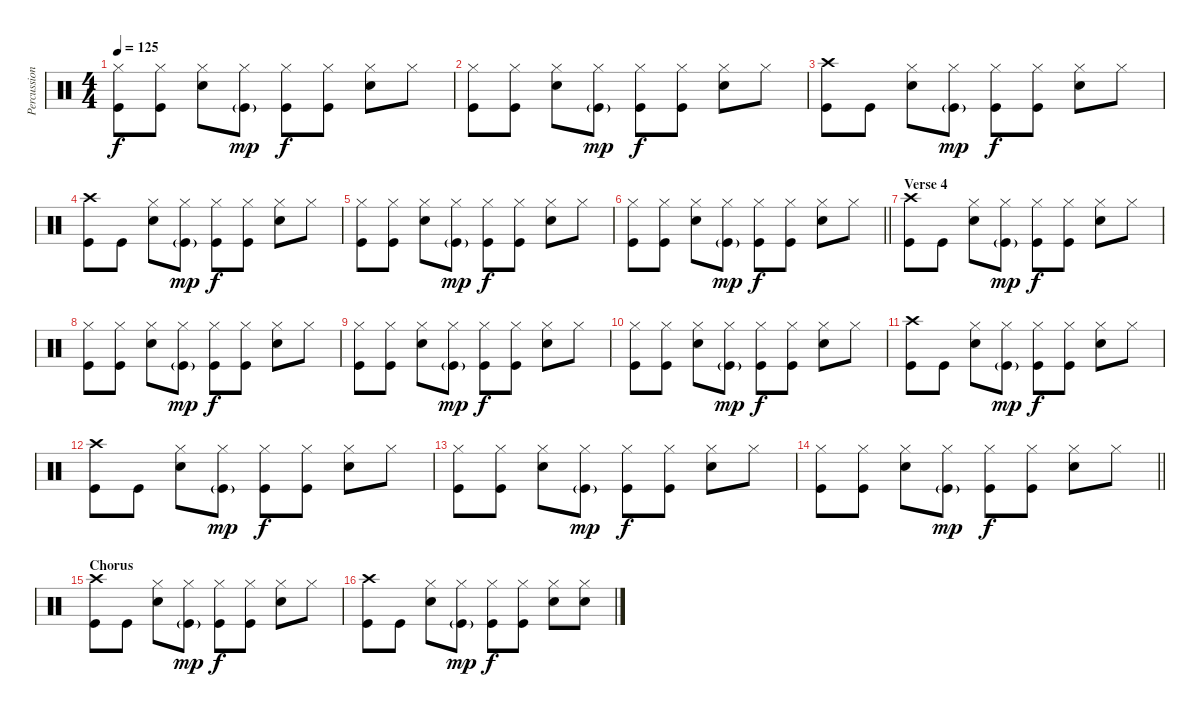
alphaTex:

\track ("Percussion" "Percussion") {instrument percussion}
\staff {score}
\articulation defaults
\ts (4 4)
\tempo 125
\clef neutral
\ks c
("Hi-Hat (closed)" "Kick (hit)").8{dy f} ("Hi-Hat (closed)" "Kick (hit)").8 ("Hi-Hat (closed)" "Snare (hit) 2").8 ("Hi-Hat (closed)" "Kick (hit)"{g}).8{dy mp} ("Hi-Hat (closed)" "Kick (hit)").8{dy f} ("Hi-Hat (closed)" "Kick (hit)").8 ("Hi-Hat (closed)" "Snare (hit) 2").8 "Hi-Hat (closed)".8 |
("Hi-Hat (closed)" "Kick (hit)").8 ("Hi-Hat (closed)" "Kick (hit)").8 ("Hi-Hat (closed)" "Snare (hit) 2").8 ("Hi-Hat (closed)" "Kick (hit)"{g}).8{dy mp} ("Hi-Hat (closed)" "Kick (hit)").8{dy f} ("Hi-Hat (closed)" "Kick (hit)").8 ("Hi-Hat (closed)" "Snare (hit) 2").8 "Hi-Hat (closed)".8 |
("Crash high (hit)" "Kick (hit)").8 "Kick (hit)".8 ("Hi-Hat (closed)" "Snare (hit) 2").8 ("Hi-Hat (closed)" "Kick (hit)"{g}).8{dy mp} ("Hi-Hat (closed)" "Kick (hit)").8{dy f} ("Hi-Hat (closed)" "Kick (hit)").8 ("Hi-Hat (closed)" "Snare (hit) 2").8 "Hi-Hat (closed)".8 |
("Crash high (hit)" "Kick (hit)").8 "Kick (hit)".8 ("Hi-Hat (closed)" "Snare (hit) 2").8 ("Hi-Hat (closed)" "Kick (hit)"{g}).8{dy mp} ("Hi-Hat (closed)" "Kick (hit)").8{dy f} ("Hi-Hat (closed)" "Kick (hit)").8 ("Hi-Hat (closed)" "Snare (hit) 2").8 "Hi-Hat (closed)".8 |
("Hi-Hat (closed)" "Kick (hit)").8 ("Hi-Hat (closed)" "Kick (hit)").8 ("Hi-Hat (closed)" "Snare (hit) 2").8 ("Hi-Hat (closed)" "Kick (hit)"{g}).8{dy mp} ("Hi-Hat (closed)" "Kick (hit)").8{dy f} ("Hi-Hat (closed)" "Kick (hit)").8 ("Hi-Hat (closed)" "Snare (hit) 2").8 "Hi-Hat (closed)".8 |
\barLineRight lightlight
("Hi-Hat (closed)" "Kick (hit)").8 ("Hi-Hat (closed)" "Kick (hit)").8 ("Hi-Hat (closed)" "Snare (hit) 2").8 ("Hi-Hat (closed)" "Kick (hit)"{g}).8{dy mp} ("Hi-Hat (closed)" "Kick (hit)").8{dy f} ("Hi-Hat (closed)" "Kick (hit)").8 ("Hi-Hat (closed)" "Snare (hit) 2").8 "Hi-Hat (closed)".8 |
\section ("" "Verse 4")
("Crash high (hit)" "Kick (hit)").8 "Kick (hit)".8 ("Hi-Hat (closed)" "Snare (hit) 2").8 ("Hi-Hat (closed)" "Kick (hit)"{g}).8{dy mp} ("Hi-Hat (closed)" "Kick (hit)").8{dy f} ("Hi-Hat (closed)" "Kick (hit)").8 ("Hi-Hat (closed)" "Snare (hit) 2").8 "Hi-Hat (closed)".8 |
("Hi-Hat (closed)" "Kick (hit)").8 ("Hi-Hat (closed)" "Kick (hit)").8 ("Hi-Hat (closed)" "Snare (hit) 2").8 ("Hi-Hat (closed)" "Kick (hit)"{g}).8{dy mp} ("Hi-Hat (closed)" "Kick (hit)").8{dy f} ("Hi-Hat (closed)" "Kick (hit)").8 ("Hi-Hat (closed)" "Snare (hit) 2").8 "Hi-Hat (closed)".8 |
("Hi-Hat (closed)" "Kick (hit)").8 ("Hi-Hat (closed)" "Kick (hit)").8 ("Hi-Hat (closed)" "Snare (hit) 2").8 ("Hi-Hat (closed)" "Kick (hit)"{g}).8{dy mp} ("Hi-Hat (closed)" "Kick (hit)").8{dy f} ("Hi-Hat (closed)" "Kick (hit)").8 ("Hi-Hat (closed)" "Snare (hit) 2").8 "Hi-Hat (closed)".8 |
("Hi-Hat (closed)" "Kick (hit)").8 ("Hi-Hat (closed)" "Kick (hit)").8 ("Hi-Hat (closed)" "Snare (hit) 2").8 ("Hi-Hat (closed)" "Kick (hit)"{g}).8{dy mp} ("Hi-Hat (closed)" "Kick (hit)").8{dy f} ("Hi-Hat (closed)" "Kick (hit)").8 ("Hi-Hat (closed)" "Snare (hit) 2").8 "Hi-Hat (closed)".8 |
("Crash high (hit)" "Kick (hit)").8 "Kick (hit)".8 ("Hi-Hat (closed)" "Snare (hit) 2").8 ("Hi-Hat (closed)" "Kick (hit)"{g}).8{dy mp} ("Hi-Hat (closed)" "Kick (hit)").8{dy f} ("Hi-Hat (closed)" "Kick (hit)").8 ("Hi-Hat (closed)" "Snare (hit) 2").8 "Hi-Hat (closed)".8 |
("Crash high (hit)" "Kick (hit)").8 "Kick (hit)".8 ("Hi-Hat (closed)" "Snare (hit) 2").8 ("Hi-Hat (closed)" "Kick (hit)"{g}).8{dy mp} ("Hi-Hat (closed)" "Kick (hit)").8{dy f} ("Hi-Hat (closed)" "Kick (hit)").8 ("Hi-Hat (closed)" "Snare (hit) 2").8 "Hi-Hat (closed)".8 |
("Hi-Hat (closed)" "Kick (hit)").8 ("Hi-Hat (closed)" "Kick (hit)").8 ("Hi-Hat (closed)" "Snare (hit) 2").8 ("Hi-Hat (closed)" "Kick (hit)"{g}).8{dy mp} ("Hi-Hat (closed)" "Kick (hit)").8{dy f} ("Hi-Hat (closed)" "Kick (hit)").8 ("Hi-Hat (closed)" "Snare (hit) 2").8 "Hi-Hat (closed)".8 |
\barLineRight lightlight
("Hi-Hat (closed)" "Kick (hit)").8 ("Hi-Hat (closed)" "Kick (hit)").8 ("Hi-Hat (closed)" "Snare (hit) 2").8 ("Hi-Hat (closed)" "Kick (hit)"{g}).8{dy mp} ("Hi-Hat (closed)" "Kick (hit)").8{dy f} ("Hi-Hat (closed)" "Kick (hit)").8 ("Hi-Hat (closed)" "Snare (hit) 2").8 "Hi-Hat (closed)".8 |
\section ("" "Chorus")
("Crash high (hit)" "Kick (hit)").8 "Kick (hit)".8 ("Hi-Hat (closed)" "Snare (hit) 2").8 ("Hi-Hat (closed)" "Kick (hit)"{g}).8{dy mp} ("Hi-Hat (closed)" "Kick (hit)").8{dy f} ("Hi-Hat (closed)" "Kick (hit)").8 ("Hi-Hat (closed)" "Snare (hit) 2").8 "Hi-Hat (closed)".8 |
("Crash high (hit)" "Kick (hit)").8 "Kick (hit)".8 ("Hi-Hat (closed)" "Snare (hit) 2").8 ("Hi-Hat (closed)" "Kick (hit)"{g}).8{dy mp} ("Hi-Hat (closed)" "Kick (hit)").8{dy f} ("Hi-Hat (closed)" "Kick (hit)").8 ("Hi-Hat (closed)" "Snare (hit) 2").8 ("Hi-Hat (closed)" "Snare (hit) 2").8
